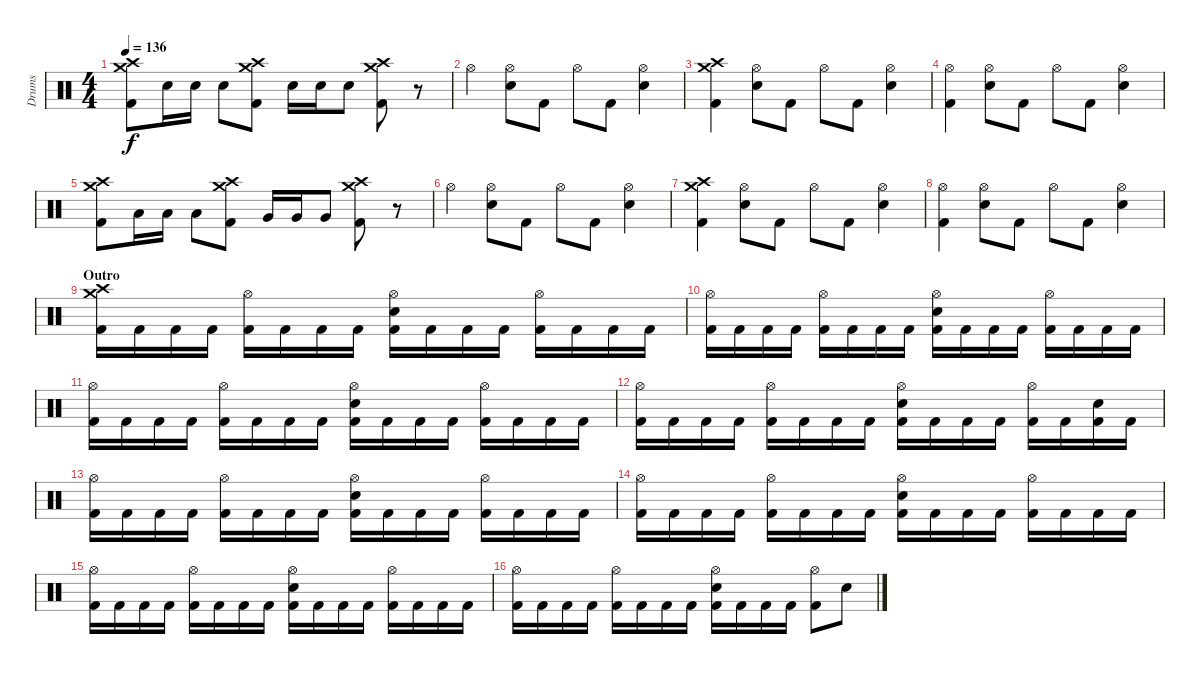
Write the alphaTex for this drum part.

\track ("Drums" "Drums") {instrument percussion}
\staff {score}
\articulation defaults
\ts (4 4)
\tempo 136
\clef neutral
\ks c
("Crash high (hit)" "Crash medium (hit)" "Kick (hit) 2").8{dy f} "Electric Snare (hit)".16 "Electric Snare (hit)".16 "Electric Snare (hit)".8 ("Crash high (hit)" "Crash medium (hit)" "Kick (hit) 2").8 "Electric Snare (hit)".16 "Electric Snare (hit)".16 "Electric Snare (hit)".8 ("Crash high (hit)" "Crash medium (hit)" "Kick (hit) 2").8 r.8 |
"Hi-Hat (open)".4 ("Hi-Hat (open)" "Electric Snare (hit)").8 "Kick (hit) 2".8 "Hi-Hat (open)".8 "Kick (hit) 2".8 ("Hi-Hat (open)" "Electric Snare (hit)").4 |
("Crash high (hit)" "Crash medium (hit)" "Kick (hit) 2").4 ("Hi-Hat (open)" "Electric Snare (hit)").8 "Kick (hit) 2".8 "Hi-Hat (open)".8 "Kick (hit) 2".8 ("Hi-Hat (open)" "Electric Snare (hit)").4 |
("Hi-Hat (open)" "Kick (hit) 2").4 ("Hi-Hat (open)" "Electric Snare (hit)").8 "Kick (hit) 2".8 "Hi-Hat (open)".8 "Kick (hit) 2".8 ("Hi-Hat (open)" "Electric Snare (hit)").4 |
("Crash high (hit)" "Crash medium (hit)" "Kick (hit) 2").8 "Low Tom (hit)".16 "Low Tom (hit)".16 "Low Tom (hit)".8 ("Crash high (hit)" "Crash medium (hit)" "Kick (hit) 2").8 "Very Low Tom (hit)".16 "Very Low Tom (hit)".16 "Very Low Tom (hit)".8 ("Crash high (hit)" "Crash medium (hit)" "Kick (hit) 2").8 r.8 |
"Hi-Hat (open)".4 ("Hi-Hat (open)" "Electric Snare (hit)").8 "Kick (hit) 2".8 "Hi-Hat (open)".8 "Kick (hit) 2".8 ("Hi-Hat (open)" "Electric Snare (hit)").4 |
("Crash high (hit)" "Crash medium (hit)" "Kick (hit) 2").4 ("Hi-Hat (open)" "Electric Snare (hit)").8 "Kick (hit) 2".8 "Hi-Hat (open)".8 "Kick (hit) 2".8 ("Hi-Hat (open)" "Electric Snare (hit)").4 |
("Hi-Hat (open)" "Kick (hit) 2").4 ("Hi-Hat (open)" "Electric Snare (hit)").8 "Kick (hit) 2".8 "Hi-Hat (open)".8 "Kick (hit) 2".8 ("Hi-Hat (open)" "Electric Snare (hit)").4 |
\section ("" "Outro")
("Crash high (hit)" "Crash medium (hit)" "Kick (hit) 2").16 "Kick (hit) 2".16 "Kick (hit) 2".16 "Kick (hit) 2".16 ("Hi-Hat (open)" "Kick (hit) 2").16 "Kick (hit) 2".16 "Kick (hit) 2".16 "Kick (hit) 2".16 ("Hi-Hat (open)" "Electric Snare (hit)" "Kick (hit) 2").16 "Kick (hit) 2".16 "Kick (hit) 2".16 "Kick (hit) 2".16 ("Hi-Hat (open)" "Kick (hit) 2").16 "Kick (hit) 2".16 "Kick (hit) 2".16 "Kick (hit) 2".16 |
("Hi-Hat (open)" "Kick (hit) 2").16 "Kick (hit) 2".16 "Kick (hit) 2".16 "Kick (hit) 2".16 ("Hi-Hat (open)" "Kick (hit) 2").16 "Kick (hit) 2".16 "Kick (hit) 2".16 "Kick (hit) 2".16 ("Hi-Hat (open)" "Electric Snare (hit)" "Kick (hit) 2").16 "Kick (hit) 2".16 "Kick (hit) 2".16 "Kick (hit) 2".16 ("Hi-Hat (open)" "Kick (hit) 2").16 "Kick (hit) 2".16 "Kick (hit) 2".16 "Kick (hit) 2".16 |
("Hi-Hat (open)" "Kick (hit) 2").16 "Kick (hit) 2".16 "Kick (hit) 2".16 "Kick (hit) 2".16 ("Hi-Hat (open)" "Kick (hit) 2").16 "Kick (hit) 2".16 "Kick (hit) 2".16 "Kick (hit) 2".16 ("Hi-Hat (open)" "Electric Snare (hit)" "Kick (hit) 2").16 "Kick (hit) 2".16 "Kick (hit) 2".16 "Kick (hit) 2".16 ("Hi-Hat (open)" "Kick (hit) 2").16 "Kick (hit) 2".16 "Kick (hit) 2".16 "Kick (hit) 2".16 |
("Hi-Hat (open)" "Kick (hit) 2").16 "Kick (hit) 2".16 "Kick (hit) 2".16 "Kick (hit) 2".16 ("Hi-Hat (open)" "Kick (hit) 2").16 "Kick (hit) 2".16 "Kick (hit) 2".16 "Kick (hit) 2".16 ("Hi-Hat (open)" "Electric Snare (hit)" "Kick (hit) 2").16 "Kick (hit) 2".16 "Kick (hit) 2".16 "Kick (hit) 2".16 ("Hi-Hat (open)" "Kick (hit) 2").16 "Kick (hit) 2".16 ("Electric Snare (hit)" "Kick (hit) 2").16 "Kick (hit) 2".16 |
("Hi-Hat (open)" "Kick (hit) 2").16 "Kick (hit) 2".16 "Kick (hit) 2".16 "Kick (hit) 2".16 ("Hi-Hat (open)" "Kick (hit) 2").16 "Kick (hit) 2".16 "Kick (hit) 2".16 "Kick (hit) 2".16 ("Hi-Hat (open)" "Electric Snare (hit)" "Kick (hit) 2").16 "Kick (hit) 2".16 "Kick (hit) 2".16 "Kick (hit) 2".16 ("Hi-Hat (open)" "Kick (hit) 2").16 "Kick (hit) 2".16 "Kick (hit) 2".16 "Kick (hit) 2".16 |
("Hi-Hat (open)" "Kick (hit) 2").16 "Kick (hit) 2".16 "Kick (hit) 2".16 "Kick (hit) 2".16 ("Hi-Hat (open)" "Kick (hit) 2").16 "Kick (hit) 2".16 "Kick (hit) 2".16 "Kick (hit) 2".16 ("Hi-Hat (open)" "Electric Snare (hit)" "Kick (hit) 2").16 "Kick (hit) 2".16 "Kick (hit) 2".16 "Kick (hit) 2".16 ("Hi-Hat (open)" "Kick (hit) 2").16 "Kick (hit) 2".16 "Kick (hit) 2".16 "Kick (hit) 2".16 |
("Hi-Hat (open)" "Kick (hit) 2").16 "Kick (hit) 2".16 "Kick (hit) 2".16 "Kick (hit) 2".16 ("Hi-Hat (open)" "Kick (hit) 2").16 "Kick (hit) 2".16 "Kick (hit) 2".16 "Kick (hit) 2".16 ("Hi-Hat (open)" "Electric Snare (hit)" "Kick (hit) 2").16 "Kick (hit) 2".16 "Kick (hit) 2".16 "Kick (hit) 2".16 ("Hi-Hat (open)" "Kick (hit) 2").16 "Kick (hit) 2".16 "Kick (hit) 2".16 "Kick (hit) 2".16 |
("Hi-Hat (open)" "Kick (hit) 2").16 "Kick (hit) 2".16 "Kick (hit) 2".16 "Kick (hit) 2".16 ("Hi-Hat (open)" "Kick (hit) 2").16 "Kick (hit) 2".16 "Kick (hit) 2".16 "Kick (hit) 2".16 ("Hi-Hat (open)" "Electric Snare (hit)" "Kick (hit) 2").16 "Kick (hit) 2".16 "Kick (hit) 2".16 "Kick (hit) 2".16 ("Hi-Hat (open)" "Kick (hit) 2").8 "Electric Snare (hit)".8
